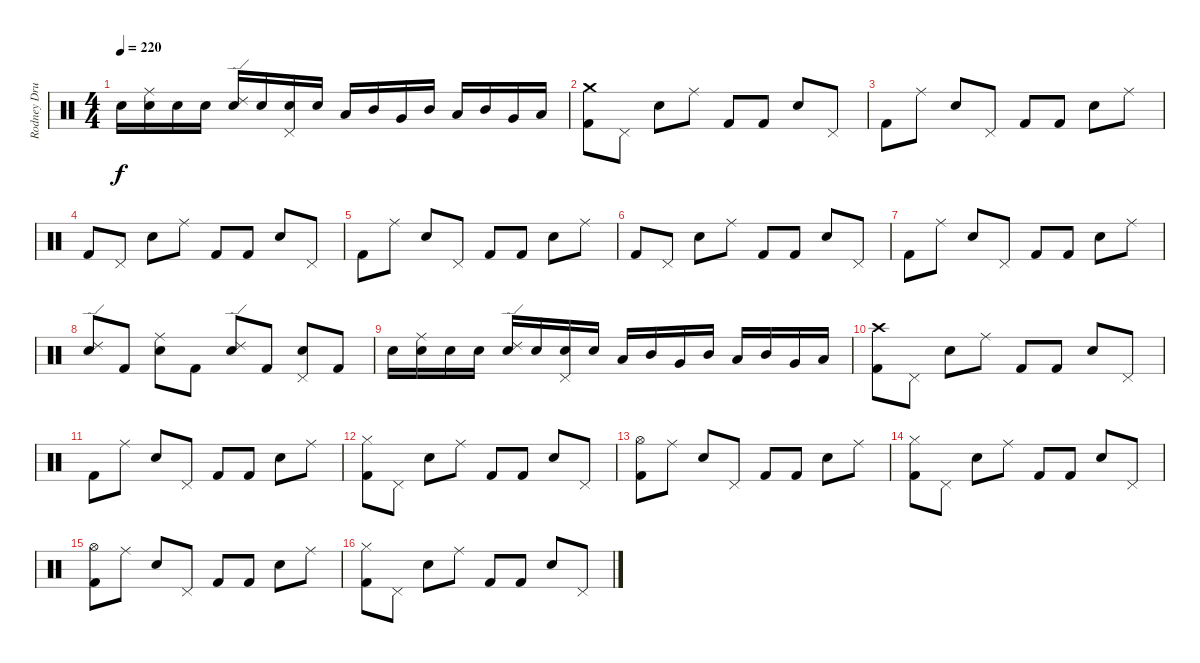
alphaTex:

\track ("Rodney Drums" "Rodney Dru") {instrument percussion}
\staff {score}
\articulation defaults
\ts (4 4)
\tempo 220
\clef neutral
\ks c "Electric Snare (hit)".16{dy f}
("Ride (middle)" "Electric Snare (hit)").16 "Electric Snare (hit)".16 "Electric Snare (hit)".16 ("Ride (edge) 2" "Electric Snare (hit)").16 "Electric Snare (hit)".16 ("Pedal Hi-Hat (hit)" "Electric Snare (hit)").16 "Electric Snare (hit)".16 "Low Tom (hit)".16 "Mid Tom (hit)".16 "Very Low Tom (hit)".16 "Mid Tom (hit)".16 "Low Tom (hit)".16 "Mid Tom (hit)".16 "Very Low Tom (hit)".16 "Low Tom (hit)".16 |
("Crash medium (hit)" "Kick (hit) 2").8 "Pedal Hi-Hat (hit)".8 "Electric Snare (hit)".8 "Ride (middle)".8 "Kick (hit) 2".8 "Kick (hit) 2".8 "Electric Snare (hit)".8 "Pedal Hi-Hat (hit)".8 |
"Kick (hit) 2".8 "Ride (middle)".8 "Electric Snare (hit)".8 "Pedal Hi-Hat (hit)".8 "Kick (hit) 2".8 "Kick (hit) 2".8 "Electric Snare (hit)".8 "Ride (middle)".8 |
"Kick (hit) 2".8 "Pedal Hi-Hat (hit)".8 "Electric Snare (hit)".8 "Ride (middle)".8 "Kick (hit) 2".8 "Kick (hit) 2".8 "Electric Snare (hit)".8 "Pedal Hi-Hat (hit)".8 |
"Kick (hit) 2".8 "Ride (middle)".8 "Electric Snare (hit)".8 "Pedal Hi-Hat (hit)".8 "Kick (hit) 2".8 "Kick (hit) 2".8 "Electric Snare (hit)".8 "Ride (middle)".8 |
"Kick (hit) 2".8 "Pedal Hi-Hat (hit)".8 "Electric Snare (hit)".8 "Ride (middle)".8 "Kick (hit) 2".8 "Kick (hit) 2".8 "Electric Snare (hit)".8 "Pedal Hi-Hat (hit)".8 |
"Kick (hit) 2".8 "Ride (middle)".8 "Electric Snare (hit)".8 "Pedal Hi-Hat (hit)".8 "Kick (hit) 2".8 "Kick (hit) 2".8 "Electric Snare (hit)".8 "Ride (middle)".8 |
("Ride (edge) 2" "Electric Snare (hit)").8 "Kick (hit) 2".8 ("Ride (middle)" "Electric Snare (hit)").8 "Kick (hit) 2".8 ("Ride (edge) 2" "Electric Snare (hit)").8 "Kick (hit) 2".8 ("Pedal Hi-Hat (hit)" "Electric Snare (hit)").8 "Kick (hit) 2".8 |
"Electric Snare (hit)".16 ("Ride (middle)" "Electric Snare (hit)").16 "Electric Snare (hit)".16 "Electric Snare (hit)".16 ("Ride (edge) 2" "Electric Snare (hit)").16 "Electric Snare (hit)".16 ("Pedal Hi-Hat (hit)" "Electric Snare (hit)").16 "Electric Snare (hit)".16 "Low Tom (hit)".16 "Mid Tom (hit)".16 "Very Low Tom (hit)".16 "Mid Tom (hit)".16 "Low Tom (hit)".16 "Mid Tom (hit)".16 "Very Low Tom (hit)".16 "Low Tom (hit)".16 |
("Crash high (hit)" "Kick (hit) 2").8 "Pedal Hi-Hat (hit)".8 "Electric Snare (hit)".8 "Ride (middle)".8 "Kick (hit) 2".8 "Kick (hit) 2".8 "Electric Snare (hit)".8 "Pedal Hi-Hat (hit)".8 |
"Kick (hit) 2".8 "Ride (middle)".8 "Electric Snare (hit)".8 "Pedal Hi-Hat (hit)".8 "Kick (hit) 2".8 "Kick (hit) 2".8 "Electric Snare (hit)".8 "Ride (middle)".8 |
("Hi-Hat (closed)" "Kick (hit) 2").8 "Pedal Hi-Hat (hit)".8 "Electric Snare (hit)".8 "Ride (middle)".8 "Kick (hit) 2".8 "Kick (hit) 2".8 "Electric Snare (hit)".8 "Pedal Hi-Hat (hit)".8 |
("Hi-Hat (open)" "Kick (hit) 2").8 "Ride (middle)".8 "Electric Snare (hit)".8 "Pedal Hi-Hat (hit)".8 "Kick (hit) 2".8 "Kick (hit) 2".8 "Electric Snare (hit)".8 "Ride (middle)".8 |
("Hi-Hat (closed)" "Kick (hit) 2").8 "Pedal Hi-Hat (hit)".8 "Electric Snare (hit)".8 "Ride (middle)".8 "Kick (hit) 2".8 "Kick (hit) 2".8 "Electric Snare (hit)".8 "Pedal Hi-Hat (hit)".8 |
("Hi-Hat (open)" "Kick (hit) 2").8 "Ride (middle)".8 "Electric Snare (hit)".8 "Pedal Hi-Hat (hit)".8 "Kick (hit) 2".8 "Kick (hit) 2".8 "Electric Snare (hit)".8 "Ride (middle)".8 |
("Hi-Hat (closed)" "Kick (hit) 2").8 "Pedal Hi-Hat (hit)".8 "Electric Snare (hit)".8 "Ride (middle)".8 "Kick (hit) 2".8 "Kick (hit) 2".8 "Electric Snare (hit)".8 "Pedal Hi-Hat (hit)".8
